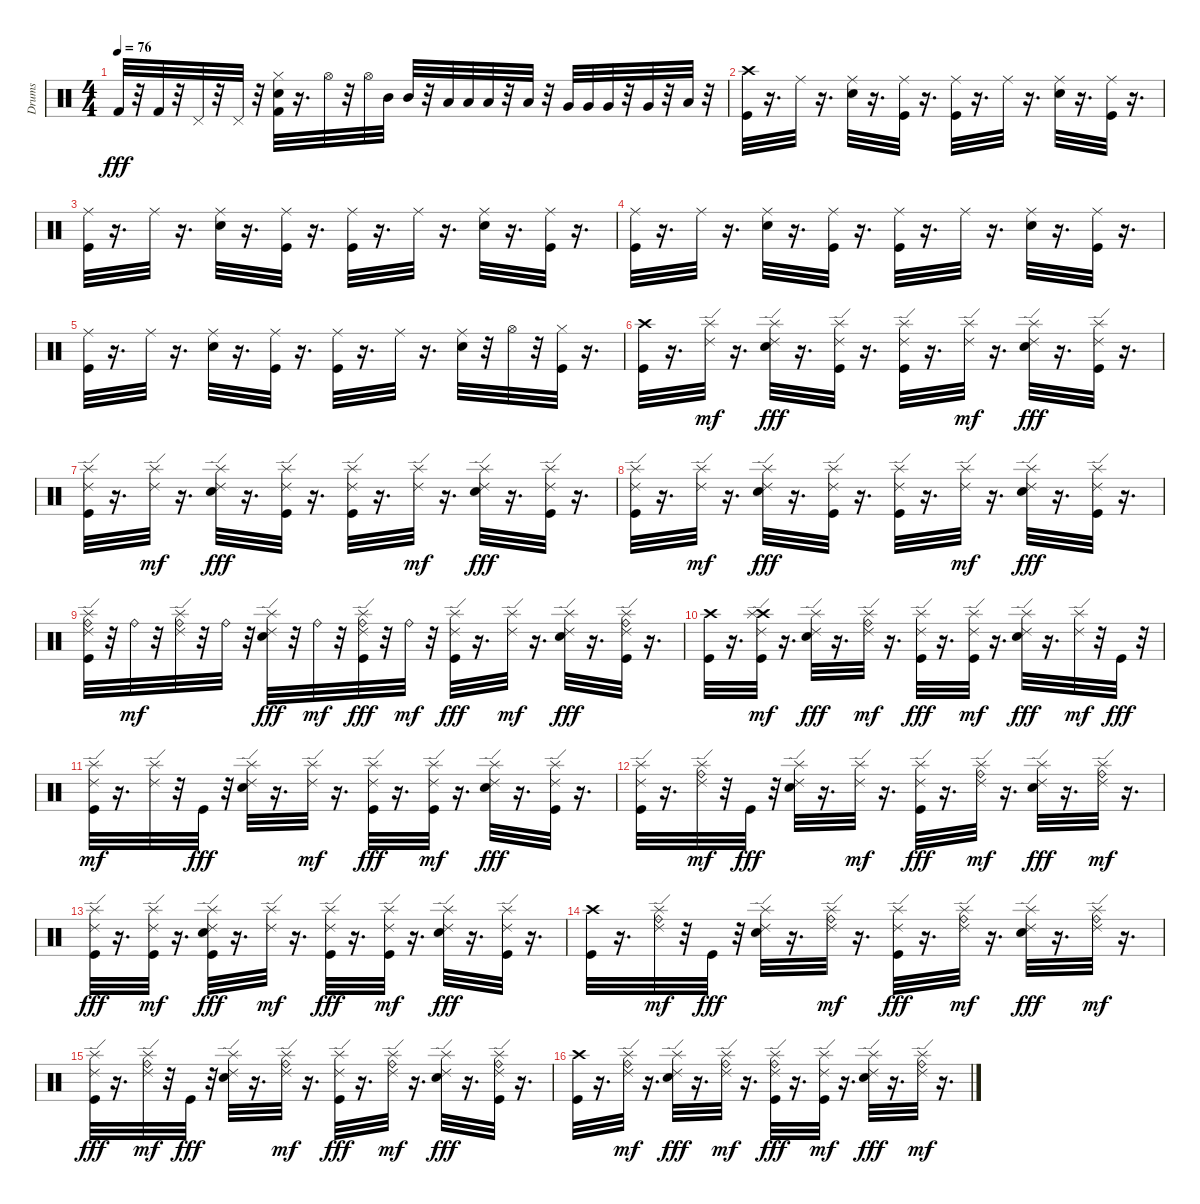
\track ("Drums" "Drums") {instrument percussion}
\staff {score}
\articulation defaults
\ts (4 4)
\tempo 76
\clef neutral
\ks c "Kick (hit) 2".32{dy fff}
r.32 "Kick (hit) 2".32 r.32 "Pedal Hi-Hat (hit)".32 r.32 "Pedal Hi-Hat (hit)".32 r.32 ("Hi-Hat (closed)" "Kick (hit) 2" "Electric Snare (hit)").32 r.16{d} "Hi-Hat (open)".32 r.32 "Hi-Hat (open)".32 "Mid Tom (hit)".32 "Mid Tom (hit)".32 r.32 "Low Tom (hit)".32 "Low Tom (hit)".32 "Low Tom (hit)".32 r.32 "Low Tom (hit)".32 r.32 "Very Low Tom (hit)".32 "Very Low Tom (hit)".32 "Very Low Tom (hit)".32 r.32 "Very Low Tom (hit)".32 r.32 "Low Floor Tom (hit)".32 r.32 |
("Kick (hit)" "Crash high (hit)").32 r.16{d} "Ride (middle)".32 r.16{d} ("Ride (middle)" "Electric Snare (hit)").32 r.16{d} ("Ride (middle)" "Kick (hit)").32 r.16{d} ("Ride (middle)" "Kick (hit)").32 r.16{d} "Ride (middle)".32 r.16{d} ("Ride (middle)" "Electric Snare (hit)").32 r.16{d} ("Ride (middle)" "Kick (hit)").32 r.16{d} |
("Ride (middle)" "Kick (hit)").32 r.16{d} "Ride (middle)".32 r.16{d} ("Ride (middle)" "Electric Snare (hit)").32 r.16{d} ("Ride (middle)" "Kick (hit)").32 r.16{d} ("Ride (middle)" "Kick (hit)").32 r.16{d} "Ride (middle)".32 r.16{d} ("Ride (middle)" "Electric Snare (hit)").32 r.16{d} ("Ride (middle)" "Kick (hit)").32 r.16{d} |
("Ride (middle)" "Kick (hit)").32 r.16{d} "Ride (middle)".32 r.16{d} ("Ride (middle)" "Electric Snare (hit)").32 r.16{d} ("Ride (middle)" "Kick (hit)").32 r.16{d} ("Ride (middle)" "Kick (hit)").32 r.16{d} "Ride (middle)".32 r.16{d} ("Ride (middle)" "Electric Snare (hit)").32 r.16{d} ("Ride (middle)" "Kick (hit)").32 r.16{d txt ""} |
("Ride (middle)" "Kick (hit)").32 r.16{d} "Ride (middle)".32 r.16{d} ("Ride (middle)" "Electric Snare (hit)").32 r.16{d} ("Ride (middle)" "Kick (hit)").32 r.16{d} ("Ride (middle)" "Kick (hit)").32 r.16{d} "Ride (middle)".32 r.16{d} ("Ride (middle)" "Electric Snare (hit)").32 r.32 "Hi-Hat (open)".32 r.32 ("Hi-Hat (closed)" "Kick (hit)").32 r.16{d} |
("Kick (hit)" "Crash high (hit)").32 r.16{d} ("Ride (edge) 2" "Splash (hit)").32{dy mf} r.16{d} ("Ride (edge) 2" "Splash (hit)" "Electric Snare (hit)").32{dy fff} r.16{d} ("Ride (edge) 2" "Splash (hit)" "Kick (hit)").32 r.16{d} ("Ride (edge) 2" "Splash (hit)" "Kick (hit)").32 r.16{d} ("Ride (edge) 2" "Splash (hit)").32{dy mf} r.16{d} ("Ride (edge) 2" "Splash (hit)" "Electric Snare (hit)").32{dy fff} r.16{d} ("Ride (edge) 2" "Splash (hit)" "Kick (hit)").32 r.16{d} |
("Ride (edge) 2" "Splash (hit)" "Kick (hit)").32 r.16{d} ("Ride (edge) 2" "Splash (hit)").32{dy mf} r.16{d} ("Ride (edge) 2" "Splash (hit)" "Electric Snare (hit)").32{dy fff} r.16{d} ("Ride (edge) 2" "Splash (hit)" "Kick (hit)").32 r.16{d} ("Ride (edge) 2" "Splash (hit)" "Kick (hit)").32 r.16{d} ("Ride (edge) 2" "Splash (hit)").32{dy mf} r.16{d} ("Ride (edge) 2" "Splash (hit)" "Electric Snare (hit)").32{dy fff} r.16{d} ("Ride (edge) 2" "Splash (hit)" "Kick (hit)").32 r.16{d} |
("Ride (edge) 2" "Splash (hit)" "Kick (hit)").32 r.16{d} ("Ride (edge) 2" "Splash (hit)").32{dy mf} r.16{d} ("Ride (edge) 2" "Splash (hit)" "Electric Snare (hit)").32{dy fff} r.16{d} ("Ride (edge) 2" "Splash (hit)" "Kick (hit)").32 r.16{d} ("Ride (edge) 2" "Splash (hit)" "Kick (hit)").32 r.16{d} ("Ride (edge) 2" "Splash (hit)").32{dy mf} r.16{d} ("Ride (edge) 2" "Splash (hit)" "Electric Snare (hit)").32{dy fff} r.16{d} ("Ride (edge) 2" "Splash (hit)" "Kick (hit)").32 r.16{d} |
("Ride (bell)" "Ride (edge) 2" "Splash (hit)" "Kick (hit)").32 r.32 "Ride (bell)".32{dy mf} r.32 ("Ride (bell)" "Ride (edge) 2" "Splash (hit)").32 r.32 "Ride (bell)".32 r.32 ("Ride (edge) 2" "Splash (hit)" "Electric Snare (hit)").32{dy fff} r.32 "Ride (bell)".32{dy mf} r.32 ("Ride (bell)" "Ride (edge) 2" "Splash (hit)" "Kick (hit)").32{dy fff} r.32 "Ride (bell)".32{dy mf} r.32 ("Ride (edge) 2" "Splash (hit)" "Kick (hit)").32{dy fff} r.16{d} ("Ride (edge) 2" "Splash (hit)").32{dy mf} r.16{d} ("Ride (edge) 2" "Splash (hit)" "Electric Snare (hit)").32{dy fff} r.16{d} ("Ride (bell)" "Ride (edge) 2" "Splash (hit)" "Kick (hit)").32 r.16{d} |
("Kick (hit)" "Crash high (hit)").32 r.16{d} ("Kick (hit)" "Crash high (hit)" "Ride (edge) 2" "Splash (hit)").32{dy mf} r.16{d} ("Ride (edge) 2" "Splash (hit)" "Electric Snare (hit)").32{dy fff} r.16{d} ("Ride (bell)" "Ride (edge) 2" "Splash (hit)").32{dy mf} r.16{d} ("Ride (edge) 2" "Splash (hit)" "Kick (hit)").32{dy fff} r.16{d} ("Kick (hit)" "Ride (edge) 2" "Splash (hit)").32{dy mf} r.16{d} ("Ride (edge) 2" "Splash (hit)" "Electric Snare (hit)").32{dy fff} r.16{d} ("Ride (edge) 2" "Splash (hit)").32{dy mf} r.32 "Kick (hit)".32{dy fff} r.32 |
("Kick (hit)" "Ride (edge) 2" "Splash (hit)").32{dy mf} r.16{d} ("Ride (edge) 2" "Splash (hit)").32 r.32 "Kick (hit)".32{dy fff} r.32 ("Ride (edge) 2" "Splash (hit)" "Electric Snare (hit)").32 r.16{d} ("Ride (edge) 2" "Splash (hit)").32{dy mf} r.16{d} ("Ride (edge) 2" "Splash (hit)" "Kick (hit)").32{dy fff} r.16{d} ("Kick (hit)" "Ride (edge) 2" "Splash (hit)").32{dy mf} r.16{d} ("Ride (edge) 2" "Splash (hit)" "Electric Snare (hit)").32{dy fff} r.16{d} ("Ride (edge) 2" "Splash (hit)" "Kick (hit)").32 r.16{d} |
("Ride (edge) 2" "Splash (hit)" "Kick (hit)").32 r.16{d} ("Ride (bell)" "Ride (edge) 2" "Splash (hit)").32{dy mf} r.32 "Kick (hit)".32{dy fff} r.32 ("Ride (edge) 2" "Splash (hit)" "Electric Snare (hit)").32 r.16{d} ("Ride (edge) 2" "Splash (hit)").32{dy mf} r.16{d} ("Ride (edge) 2" "Splash (hit)" "Kick (hit)").32{dy fff} r.16{d} ("Ride (bell)" "Ride (edge) 2" "Splash (hit)").32{dy mf} r.16{d} ("Ride (edge) 2" "Splash (hit)" "Electric Snare (hit)").32{dy fff} r.16{d} ("Ride (bell)" "Ride (edge) 2" "Splash (hit)").32{dy mf} r.16{d} |
("Ride (edge) 2" "Splash (hit)" "Kick (hit)").32{dy fff} r.16{d} ("Kick (hit)" "Ride (edge) 2" "Splash (hit)").32{dy mf} r.16{d} ("Kick (hit)" "Ride (edge) 2" "Splash (hit)" "Electric Snare (hit)").32{dy fff} r.16{d} ("Ride (edge) 2" "Splash (hit)").32{dy mf} r.16{d} ("Ride (edge) 2" "Splash (hit)" "Kick (hit)").32{dy fff} r.16{d} ("Kick (hit)" "Ride (edge) 2" "Splash (hit)").32{dy mf} r.16{d} ("Ride (edge) 2" "Splash (hit)" "Electric Snare (hit)").32{dy fff} r.16{d} ("Ride (edge) 2" "Splash (hit)" "Kick (hit)").32 r.16{d} |
("Kick (hit)" "Crash high (hit)").32 r.16{d} ("Ride (bell)" "Ride (edge) 2" "Splash (hit)").32{dy mf} r.32 "Kick (hit)".32{dy fff} r.32 ("Ride (edge) 2" "Splash (hit)" "Electric Snare (hit)").32 r.16{d} ("Ride (bell)" "Ride (edge) 2" "Splash (hit)").32{dy mf} r.16{d} ("Ride (edge) 2" "Splash (hit)" "Kick (hit)").32{dy fff} r.16{d} ("Ride (bell)" "Ride (edge) 2" "Splash (hit)").32{dy mf} r.16{d} ("Ride (edge) 2" "Splash (hit)" "Electric Snare (hit)").32{dy fff} r.16{d} ("Ride (bell)" "Ride (edge) 2" "Splash (hit)").32{dy mf} r.16{d} |
("Ride (edge) 2" "Splash (hit)" "Kick (hit)").32{dy fff} r.16{d} ("Ride (bell)" "Ride (edge) 2" "Splash (hit)").32{dy mf} r.32 "Kick (hit)".32{dy fff} r.32 ("Ride (edge) 2" "Splash (hit)" "Electric Snare (hit)").32 r.16{d} ("Ride (bell)" "Ride (edge) 2" "Splash (hit)").32{dy mf} r.16{d} ("Ride (edge) 2" "Splash (hit)" "Kick (hit)").32{dy fff} r.16{d} ("Ride (bell)" "Ride (edge) 2" "Splash (hit)").32{dy mf} r.16{d} ("Ride (edge) 2" "Splash (hit)" "Electric Snare (hit)").32{dy fff} r.16{d} ("Ride (bell)" "Ride (edge) 2" "Splash (hit)" "Kick (hit)").32 r.16{d} |
("Kick (hit)" "Crash high (hit)").32 r.16{d} ("Ride (bell)" "Ride (edge) 2" "Splash (hit)").32{dy mf} r.16{d} ("Ride (edge) 2" "Splash (hit)" "Electric Snare (hit)").32{dy fff} r.16{d} ("Ride (bell)" "Ride (edge) 2" "Splash (hit)").32{dy mf} r.16{d} ("Ride (bell)" "Ride (edge) 2" "Splash (hit)" "Kick (hit)").32{dy fff} r.16{d} ("Kick (hit)" "Ride (edge) 2" "Splash (hit)").32{dy mf} r.16{d} ("Ride (edge) 2" "Splash (hit)" "Electric Snare (hit)").32{dy fff} r.16{d} ("Ride (bell)" "Ride (edge) 2" "Splash (hit)").32{dy mf} r.16{d}
